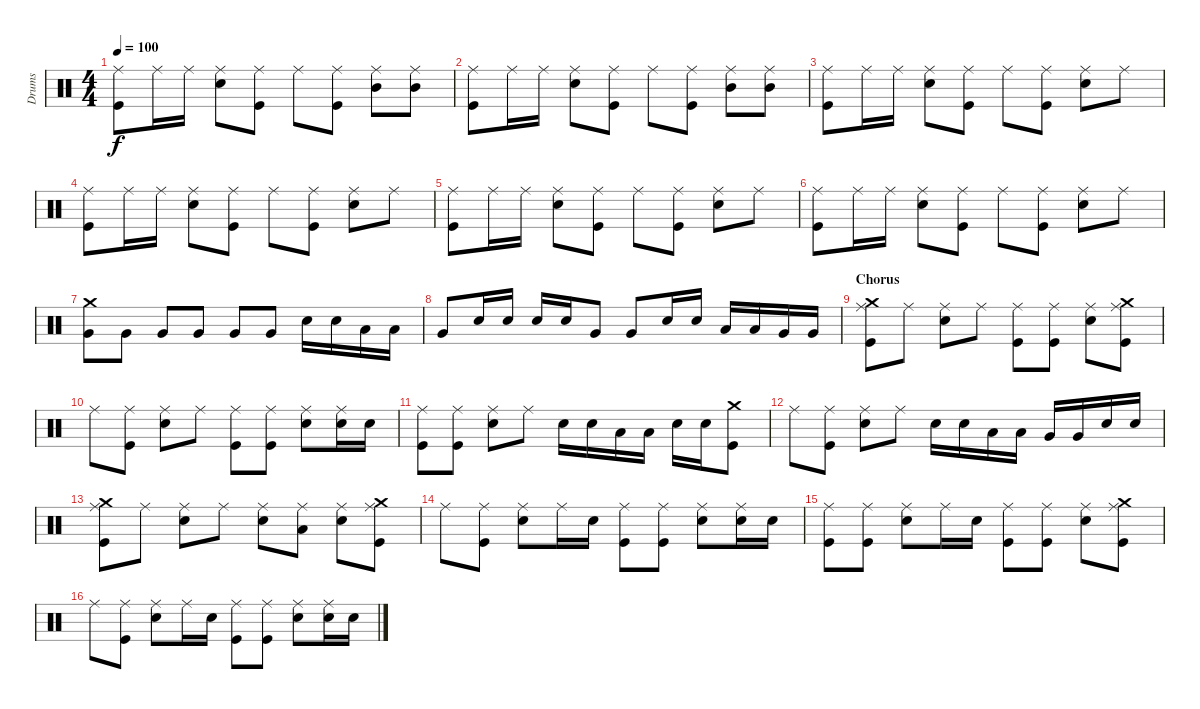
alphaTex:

\track ("Drums" "Drums") {instrument percussion}
\staff {score}
\articulation defaults
\ts (4 4)
\tempo 100
\clef neutral
\ks c
("Ride (middle)" "Kick (hit)").8{dy f} "Ride (middle)".16 "Ride (middle)".16 ("Ride (middle)" "Snare (hit) 2").8 ("Ride (middle)" "Kick (hit)").8 "Ride (middle)".8 ("Ride (middle)" "Kick (hit)").8 ("Ride (middle)" "Mid Tom (hit)").8 ("Ride (middle)" "Mid Tom (hit)").8 |
("Ride (middle)" "Kick (hit)").8 "Ride (middle)".16 "Ride (middle)".16 ("Ride (middle)" "Snare (hit) 2").8 ("Ride (middle)" "Kick (hit)").8 "Ride (middle)".8 ("Ride (middle)" "Kick (hit)").8 ("Ride (middle)" "Mid Tom (hit)").8 ("Ride (middle)" "Mid Tom (hit)").8 |
("Ride (middle)" "Kick (hit)").8 "Ride (middle)".16 "Ride (middle)".16 ("Ride (middle)" "Snare (hit) 2").8 ("Ride (middle)" "Kick (hit)").8 "Ride (middle)".8 ("Ride (middle)" "Kick (hit)").8 ("Ride (middle)" "Snare (hit) 2").8 "Ride (middle)".8 |
("Ride (middle)" "Kick (hit)").8 "Ride (middle)".16 "Ride (middle)".16 ("Ride (middle)" "Snare (hit) 2").8 ("Ride (middle)" "Kick (hit)").8 "Ride (middle)".8 ("Ride (middle)" "Kick (hit)").8 ("Ride (middle)" "Snare (hit) 2").8 "Ride (middle)".8 |
("Ride (middle)" "Kick (hit)").8 "Ride (middle)".16 "Ride (middle)".16 ("Ride (middle)" "Snare (hit) 2").8 ("Ride (middle)" "Kick (hit)").8 "Ride (middle)".8 ("Ride (middle)" "Kick (hit)").8 ("Ride (middle)" "Snare (hit) 2").8 "Ride (middle)".8 |
("Ride (middle)" "Kick (hit)").8 "Ride (middle)".16 "Ride (middle)".16 ("Ride (middle)" "Snare (hit) 2").8 ("Ride (middle)" "Kick (hit)").8 "Ride (middle)".8 ("Ride (middle)" "Kick (hit)").8 ("Ride (middle)" "Snare (hit) 2").8 "Ride (middle)".8 |
("Crash medium (hit)" "Very Low Tom (hit)").8 "Very Low Tom (hit)".8 "Very Low Tom (hit)".8 "Very Low Tom (hit)".8 "Very Low Tom (hit)".8 "Very Low Tom (hit)".8 "Snare (hit) 2".16 "Snare (hit) 2".16 "Low Tom (hit)".16 "Low Tom (hit)".16 |
"Very Low Tom (hit)".8 "Snare (hit) 2".16 "Snare (hit) 2".16 "Snare (hit) 2".16 "Snare (hit) 2".16 "Very Low Tom (hit)".8 "Very Low Tom (hit)".8 "Snare (hit) 2".16 "Snare (hit) 2".16 "Low Tom (hit)".16 "Low Tom (hit)".16 "Very Low Tom (hit)".16 "Very Low Tom (hit)".16 |
\section ("" "Chorus")
("Ride (middle)" "Crash medium (hit)" "Kick (hit)").8 "Ride (middle)".8 ("Ride (middle)" "Snare (hit) 2").8 "Ride (middle)".8 ("Ride (middle)" "Kick (hit)").8 ("Ride (middle)" "Kick (hit)").8 ("Ride (middle)" "Snare (hit) 2").8 ("Ride (middle)" "Crash medium (hit)" "Kick (hit)").8 |
"Ride (middle)".8 ("Ride (middle)" "Kick (hit)").8 ("Ride (middle)" "Snare (hit) 2").8 "Ride (middle)".8 ("Ride (middle)" "Kick (hit)").8 ("Ride (middle)" "Kick (hit)").8 ("Ride (middle)" "Snare (hit) 2").8 ("Ride (middle)" "Snare (hit) 2").16 "Snare (hit) 2".16 |
("Ride (middle)" "Kick (hit)").8 ("Ride (middle)" "Kick (hit)").8 ("Ride (middle)" "Snare (hit) 2").8 "Ride (middle)".8 "Snare (hit) 2".16 "Snare (hit) 2".16 "Low Tom (hit)".16 "Low Tom (hit)".16 "Snare (hit) 2".16 "Snare (hit) 2".16 ("Crash medium (hit)" "Kick (hit)").8 |
"Ride (middle)".8 ("Ride (middle)" "Kick (hit)").8 ("Ride (middle)" "Snare (hit) 2").8 "Ride (middle)".8 "Snare (hit) 2".16 "Snare (hit) 2".16 "Low Tom (hit)".16 "Low Tom (hit)".16 "Very Low Tom (hit)".16 "Very Low Tom (hit)".16 "Snare (hit) 2".16 "Snare (hit) 2".16 |
("Ride (middle)" "Crash medium (hit)" "Kick (hit)").8 "Ride (middle)".8 ("Ride (middle)" "Snare (hit) 2").8 "Ride (middle)".8 ("Ride (middle)" "Snare (hit) 2").8 ("Ride (middle)" "Low Tom (hit)").8 ("Ride (middle)" "Snare (hit) 2").8 ("Ride (middle)" "Crash medium (hit)" "Kick (hit)").8 |
"Ride (middle)".8 ("Ride (middle)" "Kick (hit)").8 ("Ride (middle)" "Snare (hit) 2").8 "Ride (middle)".16 "Snare (hit) 2".16 ("Ride (middle)" "Kick (hit)").8 ("Ride (middle)" "Kick (hit)").8 ("Ride (middle)" "Snare (hit) 2").8 ("Ride (middle)" "Snare (hit) 2").16 "Snare (hit) 2".16 |
("Ride (middle)" "Kick (hit)").8 ("Ride (middle)" "Kick (hit)").8 ("Ride (middle)" "Snare (hit) 2").8 "Ride (middle)".16 "Snare (hit) 2".16 ("Ride (middle)" "Kick (hit)").8 ("Ride (middle)" "Kick (hit)").8 ("Ride (middle)" "Snare (hit) 2").8 ("Ride (middle)" "Crash medium (hit)" "Kick (hit)").8 |
"Ride (middle)".8 ("Ride (middle)" "Kick (hit)").8 ("Ride (middle)" "Snare (hit) 2").8 "Ride (middle)".16 "Snare (hit) 2".16 ("Ride (middle)" "Kick (hit)").8 ("Ride (middle)" "Kick (hit)").8 ("Ride (middle)" "Snare (hit) 2").8 ("Ride (middle)" "Snare (hit) 2").16 "Snare (hit) 2".16
